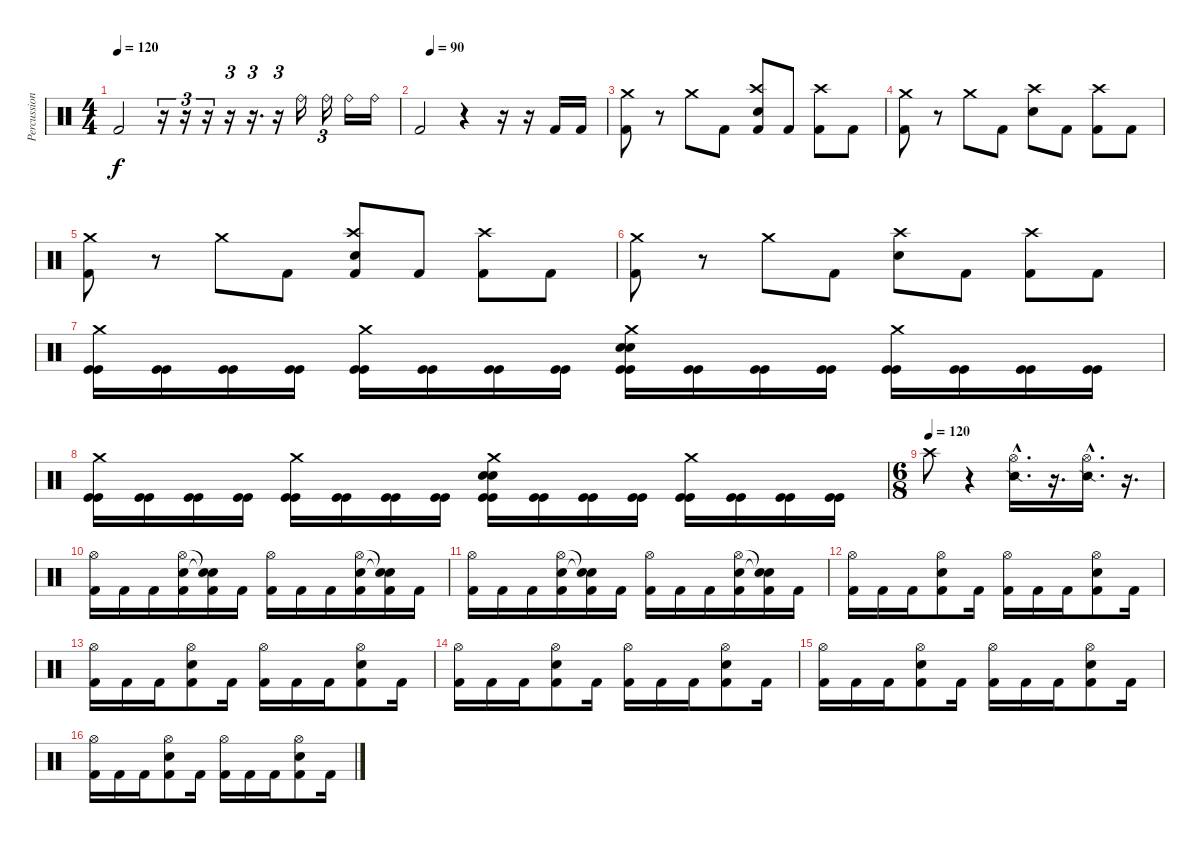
\track ("Percussion" "Percussion") {instrument percussion}
\staff {score}
\articulation defaults
\ts (4 4)
\tempo 120
\tempo 100
\tempo 120
\clef neutral
\ks c "Kick (hit) 2".2{dy f}
r.16{tu (3 2)} r.16{tu (3 2)} r.16{tu (3 2)} r.16{tu (3 2)} r.16{d tu (3 2)} r.16{tu (3 2)} "Ride (bell)".16 "Ride (bell)".16{tu (3 2)} "Ride (bell)".16 "Ride (bell)".16 |
\tempo (90 0.0625)
"Kick (hit) 2".2 r.4 r.16 r.16 "Kick (hit) 2".16 "Kick (hit) 2".16 |
("Crash medium (hit)" "Kick (hit) 2").8 r.8 "Crash medium (hit)".8 "Kick (hit) 2".8 ("Crash high (hit)" "Snare (hit) 2" "Kick (hit) 2").8 "Kick (hit) 2".8 ("Crash high (hit)" "Kick (hit) 2").8 "Kick (hit) 2".8 |
("Crash medium (hit)" "Kick (hit) 2").8 r.8 "Crash medium (hit)".8 "Kick (hit) 2".8 ("Crash high (hit)" "Snare (hit) 2").8 "Kick (hit) 2".8 ("Crash high (hit)" "Kick (hit) 2").8 "Kick (hit) 2".8 |
("Crash medium (hit)" "Kick (hit) 2").8 r.8 "Crash medium (hit)".8 "Kick (hit) 2".8 ("Crash high (hit)" "Snare (hit) 2" "Kick (hit) 2").8 "Kick (hit) 2".8 ("Crash high (hit)" "Kick (hit) 2").8 "Kick (hit) 2".8 |
("Crash medium (hit)" "Kick (hit) 2").8 r.8 "Crash medium (hit)".8 "Kick (hit) 2".8 ("Crash high (hit)" "Snare (hit) 2").8 "Kick (hit) 2".8 ("Crash high (hit)" "Kick (hit) 2").8 "Kick (hit) 2".8 |
("Crash medium (hit)" "Kick (hit)" "Kick (hit)").16 ("Kick (hit)" "Kick (hit)").16 ("Kick (hit)" "Kick (hit)").16 ("Kick (hit)" "Kick (hit)").16 ("Crash medium (hit)" "Kick (hit)" "Kick (hit)").16 ("Kick (hit)" "Kick (hit)").16 ("Kick (hit)" "Kick (hit)").16 ("Kick (hit)" "Kick (hit)").16 ("Snare (hit) 2" "Snare (hit) 2" "Crash medium (hit)" "Kick (hit)" "Kick (hit)").16 ("Kick (hit)" "Kick (hit)").16 ("Kick (hit)" "Kick (hit)").16 ("Kick (hit)" "Kick (hit)").16 ("Crash medium (hit)" "Kick (hit)" "Kick (hit)").16 ("Kick (hit)" "Kick (hit)").16 ("Kick (hit)" "Kick (hit)").16 ("Kick (hit)" "Kick (hit)").16 |
("Crash medium (hit)" "Kick (hit)" "Kick (hit)").16 ("Kick (hit)" "Kick (hit)").16 ("Kick (hit)" "Kick (hit)").16 ("Kick (hit)" "Kick (hit)").16 ("Crash medium (hit)" "Kick (hit)" "Kick (hit)").16 ("Kick (hit)" "Kick (hit)").16 ("Kick (hit)" "Kick (hit)").16 ("Kick (hit)" "Kick (hit)").16 ("Snare (hit) 2" "Snare (hit) 2" "Crash medium (hit)" "Kick (hit)" "Kick (hit)").16 ("Kick (hit)" "Kick (hit)").16 ("Kick (hit)" "Kick (hit)").16 ("Kick (hit)" "Kick (hit)").16 ("Crash medium (hit)" "Kick (hit)" "Kick (hit)").16 ("Kick (hit)" "Kick (hit)").16 ("Kick (hit)" "Kick (hit)").16 ("Kick (hit)" "Kick (hit)").16 |
\ts (6 8)
\tempo (120)
"Crash high (hit)".8 r.4 ("Hi-Hat (open)"{hac} "Snare (side stick) 2"{hac}).16{d} r.16{d} ("Hi-Hat (open)"{hac} "Snare (side stick) 2"{hac}).16{d} r.16{d} |
("Hi-Hat (open)" "Kick (hit) 2").16 "Kick (hit) 2".16 "Kick (hit) 2".16 ("Hi-Hat (open)" "Snare (hit) 2" "Kick (hit) 2").16 ("Snare (hit)"{t} "Snare (hit)"{t} "Kick (hit) 2").16 "Kick (hit) 2".16 ("Hi-Hat (open)" "Kick (hit) 2").16 "Kick (hit) 2".16 "Kick (hit) 2".16 ("Hi-Hat (open)" "Snare (hit) 2" "Kick (hit) 2").16 ("Snare (hit)"{t} "Snare (hit)"{t} "Kick (hit) 2").16 "Kick (hit) 2".16 |
("Hi-Hat (open)" "Kick (hit) 2").16 "Kick (hit) 2".16 "Kick (hit) 2".16 ("Hi-Hat (open)" "Snare (hit) 2" "Kick (hit) 2").16 ("Snare (hit)"{t} "Snare (hit)"{t} "Kick (hit) 2").16 "Kick (hit) 2".16 ("Hi-Hat (open)" "Kick (hit) 2").16 "Kick (hit) 2".16 "Kick (hit) 2".16 ("Hi-Hat (open)" "Snare (hit) 2" "Kick (hit) 2").16 ("Snare (hit)"{t} "Snare (hit)"{t} "Kick (hit) 2").16 "Kick (hit) 2".16 |
("Hi-Hat (open)" "Kick (hit) 2").16 "Kick (hit) 2".16 "Kick (hit) 2".16 ("Hi-Hat (open)" "Snare (hit) 2" "Kick (hit) 2").8 "Kick (hit) 2".16 ("Hi-Hat (open)" "Kick (hit) 2").16 "Kick (hit) 2".16 "Kick (hit) 2".16 ("Hi-Hat (open)" "Snare (hit) 2" "Kick (hit) 2").8 "Kick (hit) 2".16 |
("Hi-Hat (open)" "Kick (hit) 2").16 "Kick (hit) 2".16 "Kick (hit) 2".16 ("Hi-Hat (open)" "Snare (hit) 2" "Kick (hit) 2").8 "Kick (hit) 2".16 ("Hi-Hat (open)" "Kick (hit) 2").16 "Kick (hit) 2".16 "Kick (hit) 2".16 ("Hi-Hat (open)" "Snare (hit) 2" "Kick (hit) 2").8 "Kick (hit) 2".16 |
("Hi-Hat (open)" "Kick (hit) 2").16 "Kick (hit) 2".16 "Kick (hit) 2".16 ("Hi-Hat (open)" "Snare (hit) 2" "Kick (hit) 2").8 "Kick (hit) 2".16 ("Hi-Hat (open)" "Kick (hit) 2").16 "Kick (hit) 2".16 "Kick (hit) 2".16 ("Hi-Hat (open)" "Snare (hit) 2" "Kick (hit) 2").8 "Kick (hit) 2".16 |
("Hi-Hat (open)" "Kick (hit) 2").16 "Kick (hit) 2".16 "Kick (hit) 2".16 ("Hi-Hat (open)" "Snare (hit) 2" "Kick (hit) 2").8 "Kick (hit) 2".16 ("Hi-Hat (open)" "Kick (hit) 2").16 "Kick (hit) 2".16 "Kick (hit) 2".16 ("Hi-Hat (open)" "Snare (hit) 2" "Kick (hit) 2").8 "Kick (hit) 2".16 |
("Hi-Hat (open)" "Kick (hit) 2").16 "Kick (hit) 2".16 "Kick (hit) 2".16 ("Hi-Hat (open)" "Snare (hit) 2" "Kick (hit) 2").8 "Kick (hit) 2".16 ("Hi-Hat (open)" "Kick (hit) 2").16 "Kick (hit) 2".16 "Kick (hit) 2".16 ("Hi-Hat (open)" "Snare (hit) 2" "Kick (hit) 2").8 "Kick (hit) 2".16
